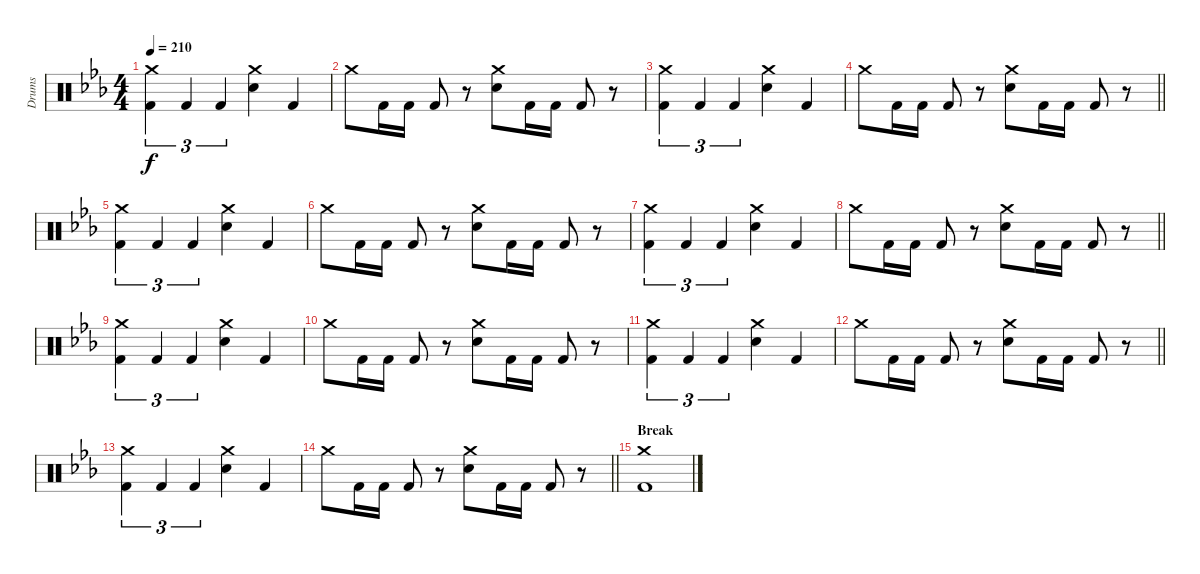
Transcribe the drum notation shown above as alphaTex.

\track ("Drums" "Drums") {instrument percussion}
\staff {score}
\articulation defaults
\ts (4 4)
\tempo 210
\clef neutral
\ks cminor
("Crash medium (hit)" "Kick (hit) 2").4{tu (3 2) dy f} "Kick (hit) 2".4{tu (3 2)} "Kick (hit) 2".4{tu (3 2)} ("Crash medium (hit)" "Electric Snare (hit)").4 "Kick (hit) 2".4 |
"Crash medium (hit)".8 "Kick (hit) 2".16 "Kick (hit) 2".16 "Kick (hit) 2".8 r.8 ("Crash medium (hit)" "Electric Snare (hit)").8 "Kick (hit) 2".16 "Kick (hit) 2".16 "Kick (hit) 2".8 r.8 |
("Crash medium (hit)" "Kick (hit) 2").4{tu (3 2)} "Kick (hit) 2".4{tu (3 2)} "Kick (hit) 2".4{tu (3 2)} ("Crash medium (hit)" "Electric Snare (hit)").4 "Kick (hit) 2".4 |
\barLineRight lightlight "Crash medium (hit)".8 "Kick (hit) 2".16 "Kick (hit) 2".16 "Kick (hit) 2".8
r.8 ("Crash medium (hit)" "Electric Snare (hit)").8 "Kick (hit) 2".16 "Kick (hit) 2".16 "Kick (hit) 2".8 r.8 |
("Crash medium (hit)" "Kick (hit) 2").4{tu (3 2)} "Kick (hit) 2".4{tu (3 2)} "Kick (hit) 2".4{tu (3 2)} ("Crash medium (hit)" "Electric Snare (hit)").4 "Kick (hit) 2".4 |
"Crash medium (hit)".8 "Kick (hit) 2".16 "Kick (hit) 2".16 "Kick (hit) 2".8 r.8 ("Crash medium (hit)" "Electric Snare (hit)").8 "Kick (hit) 2".16 "Kick (hit) 2".16 "Kick (hit) 2".8 r.8 |
("Crash medium (hit)" "Kick (hit) 2").4{tu (3 2)} "Kick (hit) 2".4{tu (3 2)} "Kick (hit) 2".4{tu (3 2)} ("Crash medium (hit)" "Electric Snare (hit)").4 "Kick (hit) 2".4 |
\barLineRight lightlight "Crash medium (hit)".8 "Kick (hit) 2".16 "Kick (hit) 2".16 "Kick (hit) 2".8
r.8 ("Crash medium (hit)" "Electric Snare (hit)").8 "Kick (hit) 2".16 "Kick (hit) 2".16 "Kick (hit) 2".8 r.8 |
("Crash medium (hit)" "Kick (hit) 2").4{tu (3 2)} "Kick (hit) 2".4{tu (3 2)} "Kick (hit) 2".4{tu (3 2)} ("Crash medium (hit)" "Electric Snare (hit)").4 "Kick (hit) 2".4 |
"Crash medium (hit)".8 "Kick (hit) 2".16 "Kick (hit) 2".16 "Kick (hit) 2".8 r.8 ("Crash medium (hit)" "Electric Snare (hit)").8 "Kick (hit) 2".16 "Kick (hit) 2".16 "Kick (hit) 2".8 r.8 |
("Crash medium (hit)" "Kick (hit) 2").4{tu (3 2)} "Kick (hit) 2".4{tu (3 2)} "Kick (hit) 2".4{tu (3 2)} ("Crash medium (hit)" "Electric Snare (hit)").4 "Kick (hit) 2".4 |
\barLineRight lightlight "Crash medium (hit)".8 "Kick (hit) 2".16 "Kick (hit) 2".16 "Kick (hit) 2".8
r.8 ("Crash medium (hit)" "Electric Snare (hit)").8 "Kick (hit) 2".16 "Kick (hit) 2".16 "Kick (hit) 2".8 r.8 |
("Crash medium (hit)" "Kick (hit) 2").4{tu (3 2)} "Kick (hit) 2".4{tu (3 2)} "Kick (hit) 2".4{tu (3 2)} ("Crash medium (hit)" "Electric Snare (hit)").4 "Kick (hit) 2".4 |
\barLineRight lightlight "Crash medium (hit)".8 "Kick (hit) 2".16 "Kick (hit) 2".16 "Kick (hit) 2".8
r.8 ("Crash medium (hit)" "Electric Snare (hit)").8 "Kick (hit) 2".16 "Kick (hit) 2".16 "Kick (hit) 2".8 r.8 |
\section ("" "Break")
("Crash medium (hit)" "Kick (hit) 2").1
